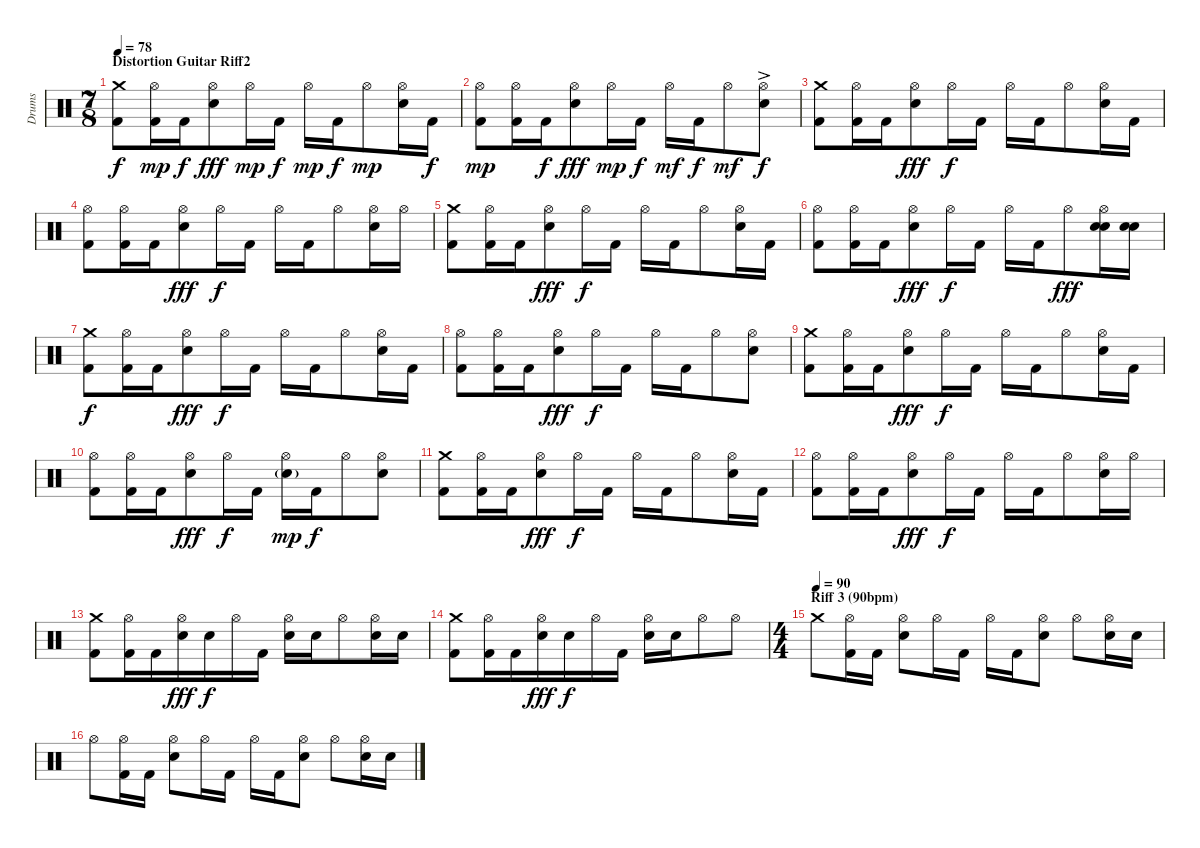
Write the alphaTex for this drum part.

\track ("Drums" "Drums") {instrument percussion}
\staff {score}
\articulation defaults
\ts (7 8)
\section ("" "Distortion Guitar Riff2")
\tempo 78
\clef neutral
\ks c
("Crash medium (hit)" "Kick (hit) 2").8{dy f} ("Hi-Hat (open)" "Kick (hit) 2").16{dy mp} "Kick (hit) 2".16{dy f} ("Hi-Hat (open)" "Snare (hit) 2").8{dy fff} "Hi-Hat (open)".16{dy mp} "Kick (hit) 2".16{dy f} "Hi-Hat (open)".16{dy mp} "Kick (hit) 2".16{dy f} "Hi-Hat (open)".8{dy mp} ("Hi-Hat (open)" "Snare (hit) 2").16 "Kick (hit) 2".16{dy f} |
("Hi-Hat (open)" "Kick (hit) 2").8{dy mp} ("Hi-Hat (open)" "Kick (hit) 2").16 "Kick (hit) 2".16{dy f} ("Hi-Hat (open)" "Snare (hit) 2").8{dy fff} "Hi-Hat (open)".16{dy mp} "Kick (hit) 2".16{dy f} "Hi-Hat (open)".16{dy mf} "Kick (hit) 2".16{dy f} "Hi-Hat (open)".8{dy mf} ("Hi-Hat (open)"{ac} "Snare (hit) 2").8{dy f} |
("Crash medium (hit)" "Kick (hit) 2").8 ("Hi-Hat (open)" "Kick (hit) 2").16 "Kick (hit) 2".16 ("Hi-Hat (open)" "Snare (hit) 2").8{dy fff} "Hi-Hat (open)".16{dy f} "Kick (hit) 2".16 "Hi-Hat (open)".16 "Kick (hit) 2".16 "Hi-Hat (open)".8 ("Hi-Hat (open)" "Snare (hit) 2").16 "Kick (hit) 2".16 |
("Hi-Hat (open)" "Kick (hit) 2").8 ("Hi-Hat (open)" "Kick (hit) 2").16 "Kick (hit) 2".16 ("Hi-Hat (open)" "Snare (hit) 2").8{dy fff} "Hi-Hat (open)".16{dy f} "Kick (hit) 2".16 "Hi-Hat (open)".16 "Kick (hit) 2".16 "Hi-Hat (open)".8 ("Hi-Hat (open)" "Snare (hit) 2").16 "Hi-Hat (open)".16 |
("Crash medium (hit)" "Kick (hit) 2").8 ("Hi-Hat (open)" "Kick (hit) 2").16 "Kick (hit) 2".16 ("Hi-Hat (open)" "Snare (hit) 2").8{dy fff} "Hi-Hat (open)".16{dy f} "Kick (hit) 2".16 "Hi-Hat (open)".16 "Kick (hit) 2".16 "Hi-Hat (open)".8 ("Hi-Hat (open)" "Snare (hit) 2").16 "Kick (hit) 2".16 |
("Hi-Hat (open)" "Kick (hit) 2").8 ("Hi-Hat (open)" "Kick (hit) 2").16 "Kick (hit) 2".16 ("Hi-Hat (open)" "Snare (hit) 2").8{dy fff} "Hi-Hat (open)".16{dy f} "Kick (hit) 2".16 "Hi-Hat (open)".16{volume 16} "Kick (hit) 2".16 "Hi-Hat (open)".8{dy fff} ("Hi-Hat (open)" "Snare (hit) 2" "Snare (hit) 2").16 ("Snare (hit) 2" "Snare (hit) 2").16 |
("Crash medium (hit)" "Kick (hit) 2").8{dy f volume 14} ("Hi-Hat (open)" "Kick (hit) 2").16 "Kick (hit) 2".16 ("Hi-Hat (open)" "Snare (hit) 2").8{dy fff} "Hi-Hat (open)".16{dy f} "Kick (hit) 2".16 "Hi-Hat (open)".16 "Kick (hit) 2".16 "Hi-Hat (open)".8 ("Hi-Hat (open)" "Snare (hit) 2").16 "Kick (hit) 2".16 |
("Hi-Hat (open)" "Kick (hit) 2").8 ("Hi-Hat (open)" "Kick (hit) 2").16 "Kick (hit) 2".16 ("Hi-Hat (open)" "Snare (hit) 2").8{dy fff} "Hi-Hat (open)".16{dy f} "Kick (hit) 2".16 "Hi-Hat (open)".16 "Kick (hit) 2".16 "Hi-Hat (open)".8 ("Hi-Hat (open)" "Snare (hit) 2").8 |
("Crash medium (hit)" "Kick (hit) 2").8 ("Hi-Hat (open)" "Kick (hit) 2").16 "Kick (hit) 2".16 ("Hi-Hat (open)" "Snare (hit) 2").8{dy fff} "Hi-Hat (open)".16{dy f} "Kick (hit) 2".16 "Hi-Hat (open)".16 "Kick (hit) 2".16 "Hi-Hat (open)".8 ("Hi-Hat (open)" "Snare (hit) 2").16 "Kick (hit) 2".16 |
("Hi-Hat (open)" "Kick (hit) 2").8 ("Hi-Hat (open)" "Kick (hit) 2").16 "Kick (hit) 2".16 ("Hi-Hat (open)" "Snare (hit) 2").8{dy fff} "Hi-Hat (open)".16{dy f} "Kick (hit) 2".16 ("Hi-Hat (open)" "Snare (hit) 2"{g}).16{dy mp} "Kick (hit) 2".16{dy f} "Hi-Hat (open)".8 ("Hi-Hat (open)" "Snare (hit) 2").8 |
("Crash medium (hit)" "Kick (hit) 2").8 ("Hi-Hat (open)" "Kick (hit) 2").16 "Kick (hit) 2".16 ("Hi-Hat (open)" "Snare (hit) 2").8{dy fff} "Hi-Hat (open)".16{dy f} "Kick (hit) 2".16 "Hi-Hat (open)".16 "Kick (hit) 2".16 "Hi-Hat (open)".8 ("Hi-Hat (open)" "Snare (hit) 2").16 "Kick (hit) 2".16 |
("Hi-Hat (open)" "Kick (hit) 2").8 ("Hi-Hat (open)" "Kick (hit) 2").16 "Kick (hit) 2".16 ("Hi-Hat (open)" "Snare (hit) 2").8{dy fff} "Hi-Hat (open)".16{dy f} "Kick (hit) 2".16 "Hi-Hat (open)".16 "Kick (hit) 2".16 "Hi-Hat (open)".8 ("Hi-Hat (open)" "Snare (hit) 2").16 "Hi-Hat (open)".16 |
("Crash medium (hit)" "Kick (hit) 2").8 ("Hi-Hat (open)" "Kick (hit) 2").16 "Kick (hit) 2".16 ("Hi-Hat (open)" "Snare (hit) 2").16{dy fff} "Snare (hit) 2".16{dy f} "Hi-Hat (open)".16 "Kick (hit) 2".16 ("Hi-Hat (open)" "Snare (hit) 2").16 "Snare (hit) 2".16 "Hi-Hat (open)".8 ("Hi-Hat (open)" "Snare (hit) 2").16 "Snare (hit) 2".16 |
("Crash medium (hit)" "Kick (hit) 2").8 ("Hi-Hat (open)" "Kick (hit) 2").16 "Kick (hit) 2".16 ("Hi-Hat (open)" "Snare (hit) 2").16{dy fff} "Snare (hit) 2".16{dy f} "Hi-Hat (open)".16 "Kick (hit) 2".16 ("Hi-Hat (open)" "Snare (hit) 2").16 "Snare (hit) 2".16 "Hi-Hat (open)".8 "Hi-Hat (open)".8 |
\ts (4 4)
\section ("" "Riff 3 (90bpm)")
\tempo (90)
"Crash medium (hit)".8 ("Hi-Hat (open)" "Kick (hit) 2").16 "Kick (hit) 2".16 ("Hi-Hat (open)" "Snare (hit) 2").8 "Hi-Hat (open)".16 "Kick (hit) 2".16 "Hi-Hat (open)".16 "Kick (hit) 2".16 ("Hi-Hat (open)" "Snare (hit) 2").8 "Hi-Hat (open)".8 ("Hi-Hat (open)" "Snare (hit) 2").16 "Snare (hit) 2".16 |
"Hi-Hat (open)".8 ("Hi-Hat (open)" "Kick (hit) 2").16 "Kick (hit) 2".16 ("Hi-Hat (open)" "Snare (hit) 2").8 "Hi-Hat (open)".16 "Kick (hit) 2".16 "Hi-Hat (open)".16 "Kick (hit) 2".16 ("Hi-Hat (open)" "Snare (hit) 2").8 "Hi-Hat (open)".8 ("Hi-Hat (open)" "Snare (hit) 2").16 "Snare (hit) 2".16
